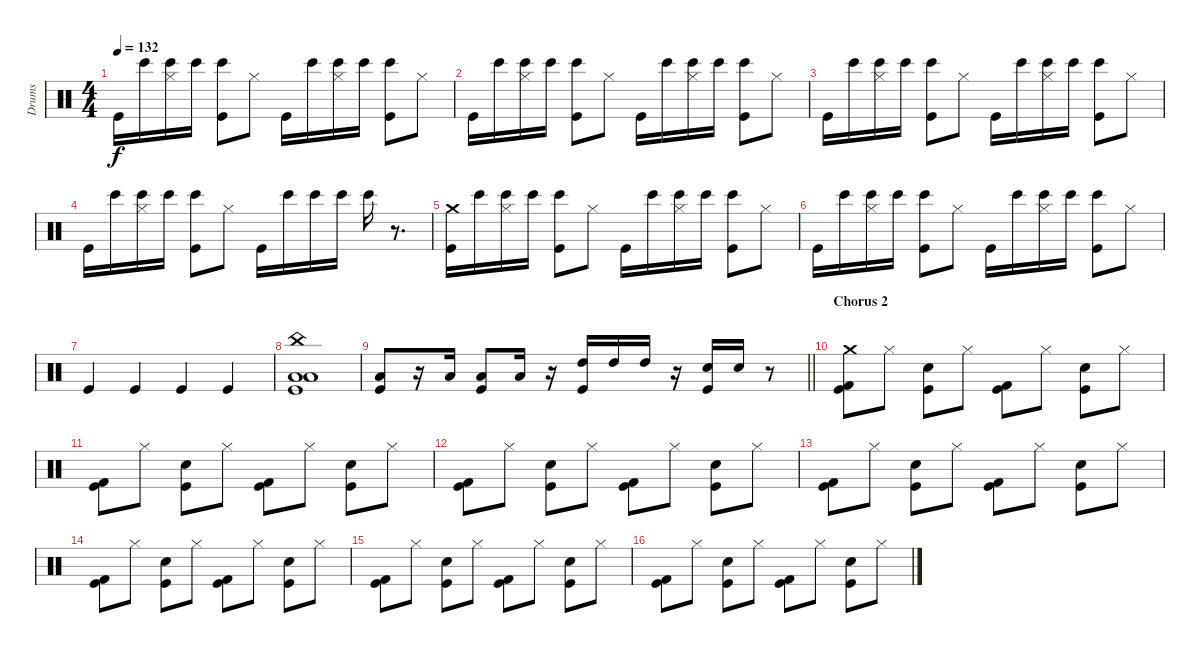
\track ("Drums" "Drums") {instrument percussion}
\staff {score}
\articulation defaults
\ts (4 4)
\tempo 132
\clef neutral
\ks c "Kick (hit)".16{dy f} "Bongo High (hit)".16
("Bongo High (hit)" "Hi-Hat (closed)").16 "Bongo High (hit)".16 ("Bongo High (hit)" "Kick (hit)").8 "Hi-Hat (closed)".8 "Kick (hit)".16 "Bongo High (hit)".16 ("Hi-Hat (closed)" "Bongo High (hit)").16 "Bongo High (hit)".16 ("Bongo High (hit)" "Kick (hit)").8 "Hi-Hat (closed)".8 |
"Kick (hit)".16 "Bongo High (hit)".16 ("Bongo High (hit)" "Hi-Hat (closed)").16 "Bongo High (hit)".16 ("Bongo High (hit)" "Kick (hit)").8 "Hi-Hat (closed)".8 "Kick (hit)".16 "Bongo High (hit)".16 ("Hi-Hat (closed)" "Bongo High (hit)").16 "Bongo High (hit)".16 ("Bongo High (hit)" "Kick (hit)").8 "Hi-Hat (closed)".8 |
"Kick (hit)".16 "Bongo High (hit)".16 ("Bongo High (hit)" "Hi-Hat (closed)").16 "Bongo High (hit)".16 ("Bongo High (hit)" "Kick (hit)").8 "Hi-Hat (closed)".8 "Kick (hit)".16 "Bongo High (hit)".16 ("Hi-Hat (closed)" "Bongo High (hit)").16 "Bongo High (hit)".16 ("Bongo High (hit)" "Kick (hit)").8 "Hi-Hat (closed)".8 |
"Kick (hit)".16 "Bongo High (hit)".16 ("Bongo High (hit)" "Hi-Hat (closed)").16 "Bongo High (hit)".16 ("Bongo High (hit)" "Kick (hit)").8 "Hi-Hat (closed)".8 "Kick (hit)".16 "Bongo High (hit)".16 "Bongo High (hit)".16 "Bongo High (hit)".16 "Bongo High (hit)".16 r.8{d} |
("Crash medium (hit)" "Kick (hit)").16 "Bongo High (hit)".16 ("Bongo High (hit)" "Hi-Hat (closed)").16 "Bongo High (hit)".16 ("Bongo High (hit)" "Kick (hit)").8 "Hi-Hat (closed)".8 "Kick (hit)".16 "Bongo High (hit)".16 ("Hi-Hat (closed)" "Bongo High (hit)").16 "Bongo High (hit)".16 ("Bongo High (hit)" "Kick (hit)").8 "Hi-Hat (closed)".8 |
"Kick (hit)".16 "Bongo High (hit)".16 ("Bongo High (hit)" "Hi-Hat (closed)").16 "Bongo High (hit)".16 ("Bongo High (hit)" "Kick (hit)").8 "Hi-Hat (closed)".8 "Kick (hit)".16 "Bongo High (hit)".16 ("Hi-Hat (closed)" "Bongo High (hit)").16 "Bongo High (hit)".16 ("Bongo High (hit)" "Kick (hit)").8 "Hi-Hat (closed)".8 |
"Kick (hit)".4 "Kick (hit)".4 "Kick (hit)".4 "Kick (hit)".4 |
("Low Tom (hit)" "Kick (hit)" "China (hit)" "Low Floor Tom (hit)").1 |
\barLineRight lightlight
("Low Floor Tom (hit)" "Kick (hit)").8 r.16 "Low Tom (hit)".16 ("Low Tom (hit)" "Kick (hit)").8 "Low Tom (hit)".16 r.16 ("High Tom (hit)" "Kick (hit)").16 "High Tom (hit)".16 "High Tom (hit)".16 r.16 ("Snare (hit) 2" "Kick (hit)").16 "Snare (hit) 2".16 r.8 |
\section ("" "Chorus 2")
("Crash medium (hit)" "Kick (hit)" "Kick (hit) 2").8 "Hi-Hat (closed)".8 ("Hand Clap (hit)" "Kick (hit)").8 "Hi-Hat (closed)".8 ("Kick (hit) 2" "Kick (hit)").8 "Hi-Hat (closed)".8 ("Kick (hit)" "Hand Clap (hit)").8 "Hi-Hat (closed)".8 |
("Kick (hit) 2" "Kick (hit)").8 "Hi-Hat (closed)".8 ("Kick (hit)" "Hand Clap (hit)").8 "Hi-Hat (closed)".8 ("Kick (hit)" "Kick (hit) 2").8 "Hi-Hat (closed)".8 ("Kick (hit)" "Hand Clap (hit)").8 "Hi-Hat (closed)".8 |
("Kick (hit)" "Kick (hit) 2").8 "Hi-Hat (closed)".8 ("Hand Clap (hit)" "Kick (hit)").8 "Hi-Hat (closed)".8 ("Kick (hit)" "Kick (hit) 2").8 "Hi-Hat (closed)".8 ("Kick (hit)" "Hand Clap (hit)").8 "Hi-Hat (closed)".8 |
("Kick (hit)" "Kick (hit) 2").8 "Hi-Hat (closed)".8 ("Hand Clap (hit)" "Kick (hit)").8 "Hi-Hat (closed)".8 ("Kick (hit)" "Kick (hit) 2").8 "Hi-Hat (closed)".8 ("Kick (hit)" "Hand Clap (hit)").8 "Hi-Hat (closed)".8 |
("Kick (hit)" "Kick (hit) 2").8 "Hi-Hat (closed)".8 ("Hand Clap (hit)" "Kick (hit)").8 "Hi-Hat (closed)".8 ("Kick (hit) 2" "Kick (hit)").8 "Hi-Hat (closed)".8 ("Kick (hit)" "Hand Clap (hit)").8 "Hi-Hat (closed)".8 |
("Kick (hit) 2" "Kick (hit)").8 "Hi-Hat (closed)".8 ("Kick (hit)" "Hand Clap (hit)").8 "Hi-Hat (closed)".8 ("Kick (hit)" "Kick (hit) 2").8 "Hi-Hat (closed)".8 ("Kick (hit)" "Hand Clap (hit)").8 "Hi-Hat (closed)".8 |
("Kick (hit)" "Kick (hit) 2").8 "Hi-Hat (closed)".8 ("Hand Clap (hit)" "Kick (hit)").8 "Hi-Hat (closed)".8 ("Kick (hit)" "Kick (hit) 2").8 "Hi-Hat (closed)".8 ("Kick (hit)" "Hand Clap (hit)").8 "Hi-Hat (closed)".8
